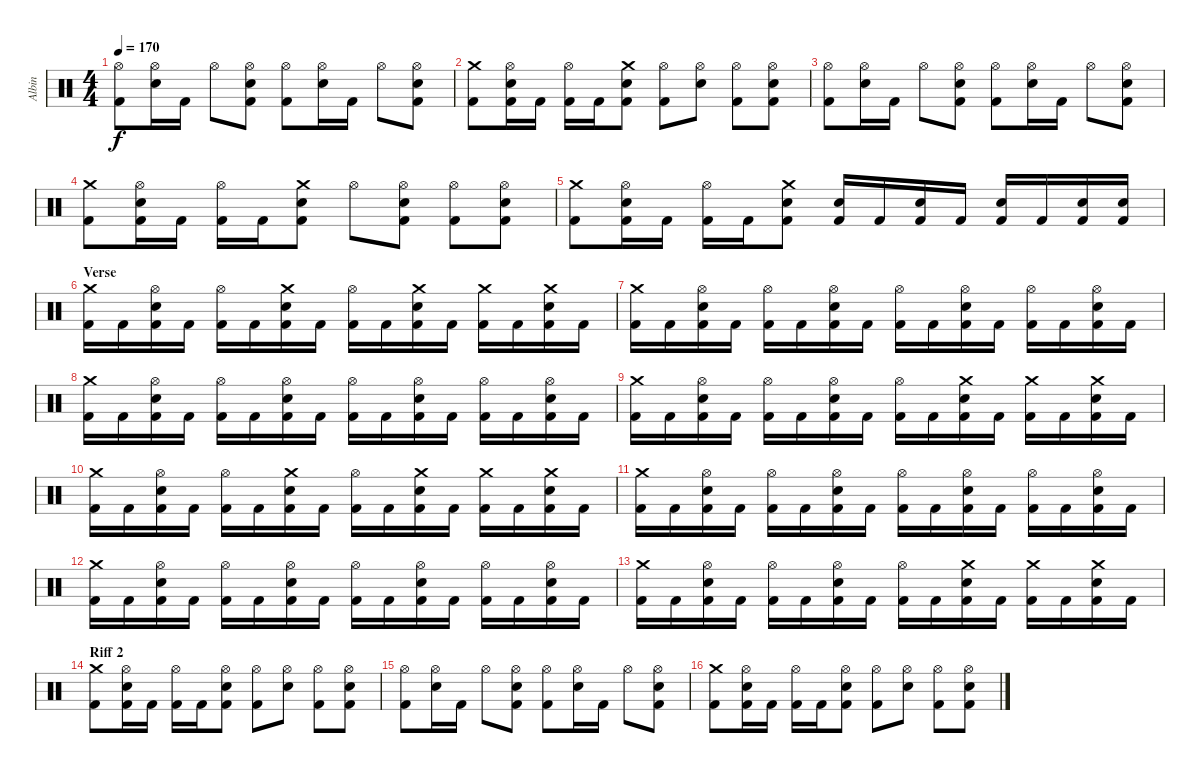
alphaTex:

\track ("Albin" "Albin") {instrument percussion}
\staff {score}
\articulation defaults
\ts (4 4)
\tempo 170
\clef neutral
\ks c
("Hi-Hat (open)" "Kick (hit) 2").8{dy f} ("Hi-Hat (open)" "Electric Snare (hit)").16 "Kick (hit) 2".16 "Hi-Hat (open)".8 ("Hi-Hat (open)" "Electric Snare (hit)" "Kick (hit) 2").8 ("Hi-Hat (open)" "Kick (hit) 2").8 ("Hi-Hat (open)" "Electric Snare (hit)").16 "Kick (hit) 2".16 "Hi-Hat (open)".8 ("Hi-Hat (open)" "Electric Snare (hit)" "Kick (hit) 2").8 |
("Crash medium (hit)" "Kick (hit) 2").8 ("Hi-Hat (open)" "Electric Snare (hit)" "Kick (hit) 2").16 "Kick (hit) 2".16 ("Hi-Hat (open)" "Kick (hit) 2").16 "Kick (hit) 2".16 ("Crash medium (hit)" "Electric Snare (hit)" "Kick (hit) 2").8 ("Hi-Hat (open)" "Kick (hit) 2").8 ("Hi-Hat (open)" "Electric Snare (hit)").8 ("Hi-Hat (open)" "Kick (hit) 2").8 ("Hi-Hat (open)" "Electric Snare (hit)" "Kick (hit) 2").8 |
("Hi-Hat (open)" "Kick (hit) 2").8 ("Hi-Hat (open)" "Electric Snare (hit)").16 "Kick (hit) 2".16 "Hi-Hat (open)".8 ("Hi-Hat (open)" "Electric Snare (hit)" "Kick (hit) 2").8 ("Hi-Hat (open)" "Kick (hit) 2").8 ("Hi-Hat (open)" "Electric Snare (hit)").16 "Kick (hit) 2".16 "Hi-Hat (open)".8 ("Hi-Hat (open)" "Electric Snare (hit)" "Kick (hit) 2").8 |
("Crash medium (hit)" "Kick (hit) 2").8 ("Hi-Hat (open)" "Electric Snare (hit)" "Kick (hit) 2").16 "Kick (hit) 2".16 ("Hi-Hat (open)" "Kick (hit) 2").16 "Kick (hit) 2".16 ("Crash medium (hit)" "Electric Snare (hit)" "Kick (hit) 2").8 "Hi-Hat (open)".8 ("Hi-Hat (open)" "Electric Snare (hit)" "Kick (hit) 2").8 ("Hi-Hat (open)" "Kick (hit) 2").8 ("Hi-Hat (open)" "Electric Snare (hit)" "Kick (hit) 2").8 |
("Crash medium (hit)" "Kick (hit) 2").8 ("Hi-Hat (open)" "Electric Snare (hit)" "Kick (hit) 2").16 "Kick (hit) 2".16 ("Hi-Hat (open)" "Kick (hit) 2").16 "Kick (hit) 2".16 ("Crash medium (hit)" "Electric Snare (hit)" "Kick (hit) 2").8 ("Electric Snare (hit)" "Kick (hit) 2").16 "Kick (hit) 2".16 ("Electric Snare (hit)" "Kick (hit) 2").16 "Kick (hit) 2".16 ("Electric Snare (hit)" "Kick (hit) 2").16 "Kick (hit) 2".16 ("Electric Snare (hit)" "Kick (hit) 2").16 ("Electric Snare (hit)" "Kick (hit) 2").16 |
\section ("" "Verse")
("Crash medium (hit)" "Kick (hit) 2").16 "Kick (hit) 2".16 ("Hi-Hat (open)" "Electric Snare (hit)" "Kick (hit) 2").16 "Kick (hit) 2".16 ("Hi-Hat (open)" "Kick (hit) 2").16 "Kick (hit) 2".16 ("Crash medium (hit)" "Electric Snare (hit)" "Kick (hit) 2").16 "Kick (hit) 2".16 ("Hi-Hat (open)" "Kick (hit) 2").16 "Kick (hit) 2".16 ("Crash medium (hit)" "Electric Snare (hit)" "Kick (hit) 2").16 "Kick (hit) 2".16 ("Crash medium (hit)" "Kick (hit) 2").16 "Kick (hit) 2".16 ("Crash medium (hit)" "Electric Snare (hit)" "Kick (hit) 2").16 "Kick (hit) 2".16 |
("Crash medium (hit)" "Kick (hit) 2").16 "Kick (hit) 2".16 ("Hi-Hat (open)" "Electric Snare (hit)" "Kick (hit) 2").16 "Kick (hit) 2".16 ("Hi-Hat (open)" "Kick (hit) 2").16 "Kick (hit) 2".16 ("Hi-Hat (open)" "Electric Snare (hit)" "Kick (hit) 2").16 "Kick (hit) 2".16 ("Hi-Hat (open)" "Kick (hit) 2").16 "Kick (hit) 2".16 ("Hi-Hat (open)" "Electric Snare (hit)" "Kick (hit) 2").16 "Kick (hit) 2".16 ("Hi-Hat (open)" "Kick (hit) 2").16 "Kick (hit) 2".16 ("Hi-Hat (open)" "Electric Snare (hit)" "Kick (hit) 2").16 "Kick (hit) 2".16 |
("Crash medium (hit)" "Kick (hit) 2").16 "Kick (hit) 2".16 ("Hi-Hat (open)" "Electric Snare (hit)" "Kick (hit) 2").16 "Kick (hit) 2".16 ("Hi-Hat (open)" "Kick (hit) 2").16 "Kick (hit) 2".16 ("Hi-Hat (open)" "Electric Snare (hit)" "Kick (hit) 2").16 "Kick (hit) 2".16 ("Hi-Hat (open)" "Kick (hit) 2").16 "Kick (hit) 2".16 ("Hi-Hat (open)" "Electric Snare (hit)" "Kick (hit) 2").16 "Kick (hit) 2".16 ("Hi-Hat (open)" "Kick (hit) 2").16 "Kick (hit) 2".16 ("Hi-Hat (open)" "Electric Snare (hit)" "Kick (hit) 2").16 "Kick (hit) 2".16 |
("Crash medium (hit)" "Kick (hit) 2").16 "Kick (hit) 2".16 ("Hi-Hat (open)" "Electric Snare (hit)" "Kick (hit) 2").16 "Kick (hit) 2".16 ("Hi-Hat (open)" "Kick (hit) 2").16 "Kick (hit) 2".16 ("Hi-Hat (open)" "Electric Snare (hit)" "Kick (hit) 2").16 "Kick (hit) 2".16 ("Hi-Hat (open)" "Kick (hit) 2").16 "Kick (hit) 2".16 ("Crash medium (hit)" "Electric Snare (hit)" "Kick (hit) 2").16 "Kick (hit) 2".16 ("Crash medium (hit)" "Kick (hit) 2").16 "Kick (hit) 2".16 ("Crash medium (hit)" "Electric Snare (hit)" "Kick (hit) 2").16 "Kick (hit) 2".16 |
("Crash medium (hit)" "Kick (hit) 2").16 "Kick (hit) 2".16 ("Hi-Hat (open)" "Electric Snare (hit)" "Kick (hit) 2").16 "Kick (hit) 2".16 ("Hi-Hat (open)" "Kick (hit) 2").16 "Kick (hit) 2".16 ("Crash medium (hit)" "Electric Snare (hit)" "Kick (hit) 2").16 "Kick (hit) 2".16 ("Hi-Hat (open)" "Kick (hit) 2").16 "Kick (hit) 2".16 ("Crash medium (hit)" "Electric Snare (hit)" "Kick (hit) 2").16 "Kick (hit) 2".16 ("Crash medium (hit)" "Kick (hit) 2").16 "Kick (hit) 2".16 ("Crash medium (hit)" "Electric Snare (hit)" "Kick (hit) 2").16 "Kick (hit) 2".16 |
("Crash medium (hit)" "Kick (hit) 2").16 "Kick (hit) 2".16 ("Hi-Hat (open)" "Electric Snare (hit)" "Kick (hit) 2").16 "Kick (hit) 2".16 ("Hi-Hat (open)" "Kick (hit) 2").16 "Kick (hit) 2".16 ("Hi-Hat (open)" "Electric Snare (hit)" "Kick (hit) 2").16 "Kick (hit) 2".16 ("Hi-Hat (open)" "Kick (hit) 2").16 "Kick (hit) 2".16 ("Hi-Hat (open)" "Electric Snare (hit)" "Kick (hit) 2").16 "Kick (hit) 2".16 ("Hi-Hat (open)" "Kick (hit) 2").16 "Kick (hit) 2".16 ("Hi-Hat (open)" "Electric Snare (hit)" "Kick (hit) 2").16 "Kick (hit) 2".16 |
("Crash medium (hit)" "Kick (hit) 2").16 "Kick (hit) 2".16 ("Hi-Hat (open)" "Electric Snare (hit)" "Kick (hit) 2").16 "Kick (hit) 2".16 ("Hi-Hat (open)" "Kick (hit) 2").16 "Kick (hit) 2".16 ("Hi-Hat (open)" "Electric Snare (hit)" "Kick (hit) 2").16 "Kick (hit) 2".16 ("Hi-Hat (open)" "Kick (hit) 2").16 "Kick (hit) 2".16 ("Hi-Hat (open)" "Electric Snare (hit)" "Kick (hit) 2").16 "Kick (hit) 2".16 ("Hi-Hat (open)" "Kick (hit) 2").16 "Kick (hit) 2".16 ("Hi-Hat (open)" "Electric Snare (hit)" "Kick (hit) 2").16 "Kick (hit) 2".16 |
("Crash medium (hit)" "Kick (hit) 2").16 "Kick (hit) 2".16 ("Hi-Hat (open)" "Electric Snare (hit)" "Kick (hit) 2").16 "Kick (hit) 2".16 ("Hi-Hat (open)" "Kick (hit) 2").16 "Kick (hit) 2".16 ("Hi-Hat (open)" "Electric Snare (hit)" "Kick (hit) 2").16 "Kick (hit) 2".16 ("Hi-Hat (open)" "Kick (hit) 2").16 "Kick (hit) 2".16 ("Crash medium (hit)" "Electric Snare (hit)" "Kick (hit) 2").16 "Kick (hit) 2".16 ("Crash medium (hit)" "Kick (hit) 2").16 "Kick (hit) 2".16 ("Crash medium (hit)" "Electric Snare (hit)" "Kick (hit) 2").16 "Kick (hit) 2".16 |
\section ("" "Riff 2")
("Crash medium (hit)" "Kick (hit) 2").8 ("Hi-Hat (open)" "Electric Snare (hit)" "Kick (hit) 2").16 "Kick (hit) 2".16 ("Hi-Hat (open)" "Kick (hit) 2").16 "Kick (hit) 2".16 ("Hi-Hat (open)" "Electric Snare (hit)" "Kick (hit) 2").8 ("Hi-Hat (open)" "Kick (hit) 2").8 ("Hi-Hat (open)" "Electric Snare (hit)").8 ("Hi-Hat (open)" "Kick (hit) 2").8 ("Hi-Hat (open)" "Electric Snare (hit)" "Kick (hit) 2").8 |
("Hi-Hat (open)" "Kick (hit) 2").8 ("Hi-Hat (open)" "Electric Snare (hit)").16 "Kick (hit) 2".16 "Hi-Hat (open)".8 ("Hi-Hat (open)" "Electric Snare (hit)" "Kick (hit) 2").8 ("Hi-Hat (open)" "Kick (hit) 2").8 ("Hi-Hat (open)" "Electric Snare (hit)").16 "Kick (hit) 2".16 "Hi-Hat (open)".8 ("Hi-Hat (open)" "Electric Snare (hit)" "Kick (hit) 2").8 |
("Crash medium (hit)" "Kick (hit) 2").8 ("Hi-Hat (open)" "Electric Snare (hit)" "Kick (hit) 2").16 "Kick (hit) 2".16 ("Hi-Hat (open)" "Kick (hit) 2").16 "Kick (hit) 2".16 ("Hi-Hat (open)" "Electric Snare (hit)" "Kick (hit) 2").8 ("Hi-Hat (open)" "Kick (hit) 2").8 ("Hi-Hat (open)" "Electric Snare (hit)").8 ("Hi-Hat (open)" "Kick (hit) 2").8 ("Hi-Hat (open)" "Electric Snare (hit)" "Kick (hit) 2").8
